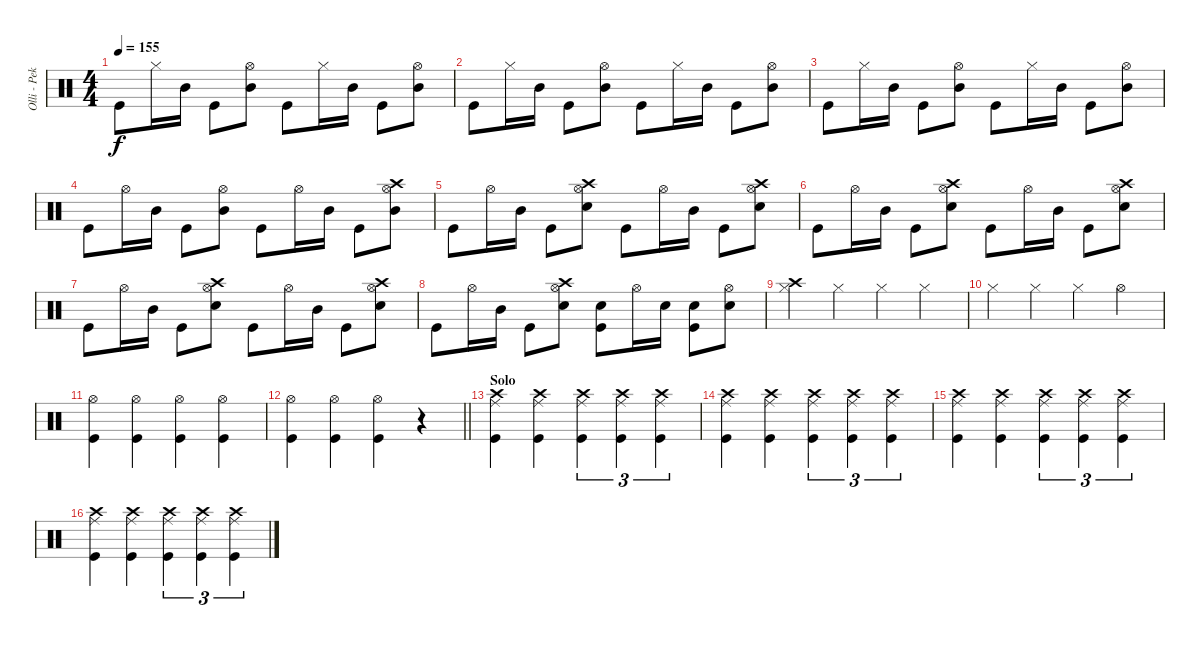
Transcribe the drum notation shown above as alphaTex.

\track ("Olli - Pekka" "Olli - Pek") {instrument percussion}
\staff {score}
\articulation defaults
\ts (4 4)
\tempo 155
\clef neutral
\ks c "Kick (hit)".8{dy f} "Hi-Hat (closed)".16 "Mid Tom (hit)".16 "Kick (hit)".8
("Hi-Hat (open)" "Mid Tom (hit)").8 "Kick (hit)".8 "Hi-Hat (closed)".16 "Mid Tom (hit)".16 "Kick (hit)".8 ("Hi-Hat (open)" "Mid Tom (hit)").8 |
"Kick (hit)".8 "Hi-Hat (closed)".16 "Mid Tom (hit)".16 "Kick (hit)".8 ("Hi-Hat (open)" "Mid Tom (hit)").8 "Kick (hit)".8 "Hi-Hat (closed)".16 "Mid Tom (hit)".16 "Kick (hit)".8 ("Hi-Hat (open)" "Mid Tom (hit)").8 |
"Kick (hit)".8 "Hi-Hat (closed)".16 "Mid Tom (hit)".16 "Kick (hit)".8 ("Hi-Hat (open)" "Mid Tom (hit)").8 "Kick (hit)".8 "Hi-Hat (closed)".16 "Mid Tom (hit)".16 "Kick (hit)".8 ("Hi-Hat (open)" "Mid Tom (hit)").8 |
"Kick (hit)".8 "Hi-Hat (open)".16 "Mid Tom (hit)".16 "Kick (hit)".8 ("Hi-Hat (open)" "Mid Tom (hit)").8 "Kick (hit)".8 "Hi-Hat (open)".16 "Mid Tom (hit)".16 "Kick (hit)".8 ("Crash high (hit)" "Hi-Hat (open)" "Mid Tom (hit)").8 |
"Kick (hit)".8 "Hi-Hat (open)".16 "Mid Tom (hit)".16 "Kick (hit)".8 ("Crash high (hit)" "Hi-Hat (open)" "Snare (hit) 2").8 "Kick (hit)".8 "Hi-Hat (open)".16 "Mid Tom (hit)".16 "Kick (hit)".8 ("Crash high (hit)" "Hi-Hat (open)" "Snare (hit) 2").8 |
"Kick (hit)".8 "Hi-Hat (open)".16 "Mid Tom (hit)".16 "Kick (hit)".8 ("Crash high (hit)" "Hi-Hat (open)" "Snare (hit) 2").8 "Kick (hit)".8 "Hi-Hat (open)".16 "Mid Tom (hit)".16 "Kick (hit)".8 ("Crash high (hit)" "Hi-Hat (open)" "Snare (hit) 2").8 |
"Kick (hit)".8 "Hi-Hat (open)".16 "Mid Tom (hit)".16 "Kick (hit)".8 ("Crash high (hit)" "Hi-Hat (open)" "Snare (hit) 2").8 "Kick (hit)".8 "Hi-Hat (open)".16 "Mid Tom (hit)".16 "Kick (hit)".8 ("Crash high (hit)" "Hi-Hat (open)" "Snare (hit) 2").8 |
"Kick (hit)".8 "Hi-Hat (open)".16 "Mid Tom (hit)".16 "Kick (hit)".8 ("Crash high (hit)" "Hi-Hat (open)" "Snare (hit) 2").8 ("Snare (hit) 2" "Kick (hit)").8 "Hi-Hat (open)".16 "Snare (hit) 2".16 ("Snare (hit) 2" "Kick (hit)").8 ("Hi-Hat (open)" "Snare (hit) 2").8 |
("Crash high (hit)" "Hi-Hat (closed)").4 "Hi-Hat (closed)".4 "Hi-Hat (closed)".4 "Hi-Hat (closed)".4 |
"Hi-Hat (closed)".4 "Hi-Hat (closed)".4 "Hi-Hat (closed)".4 "Hi-Hat (open)".4 |
("Hi-Hat (open)" "Kick (hit)").4 ("Hi-Hat (open)" "Kick (hit)").4 ("Hi-Hat (open)" "Kick (hit)").4 ("Hi-Hat (open)" "Kick (hit)").4 |
\barLineRight lightlight
("Hi-Hat (open)" "Kick (hit)").4 ("Hi-Hat (open)" "Kick (hit)").4 ("Hi-Hat (open)" "Kick (hit)").4 r.4 |
\section ("" "Solo")
("Crash high (hit)" "Ride (middle)" "Kick (hit)").4{volume 14} ("Crash high (hit)" "Ride (middle)" "Kick (hit)").4 ("Crash high (hit)" "Ride (middle)" "Kick (hit)").4{tu (3 2)} ("Crash high (hit)" "Ride (middle)" "Kick (hit)").4{tu (3 2)} ("Crash high (hit)" "Ride (middle)" "Kick (hit)").4{tu (3 2)} |
("Crash high (hit)" "Ride (middle)" "Kick (hit)").4 ("Crash high (hit)" "Ride (middle)" "Kick (hit)").4 ("Crash high (hit)" "Ride (middle)" "Kick (hit)").4{tu (3 2)} ("Crash high (hit)" "Ride (middle)" "Kick (hit)").4{tu (3 2)} ("Crash high (hit)" "Ride (middle)" "Kick (hit)").4{tu (3 2)} |
("Crash high (hit)" "Ride (middle)" "Kick (hit)").4 ("Crash high (hit)" "Ride (middle)" "Kick (hit)").4 ("Crash high (hit)" "Ride (middle)" "Kick (hit)").4{tu (3 2)} ("Crash high (hit)" "Ride (middle)" "Kick (hit)").4{tu (3 2)} ("Crash high (hit)" "Ride (middle)" "Kick (hit)").4{tu (3 2)} |
("Crash high (hit)" "Ride (middle)" "Kick (hit)").4 ("Crash high (hit)" "Ride (middle)" "Kick (hit)").4 ("Crash high (hit)" "Ride (middle)" "Kick (hit)").4{tu (3 2)} ("Crash high (hit)" "Ride (middle)" "Kick (hit)").4{tu (3 2)} ("Crash high (hit)" "Ride (middle)" "Kick (hit)").4{tu (3 2)}
